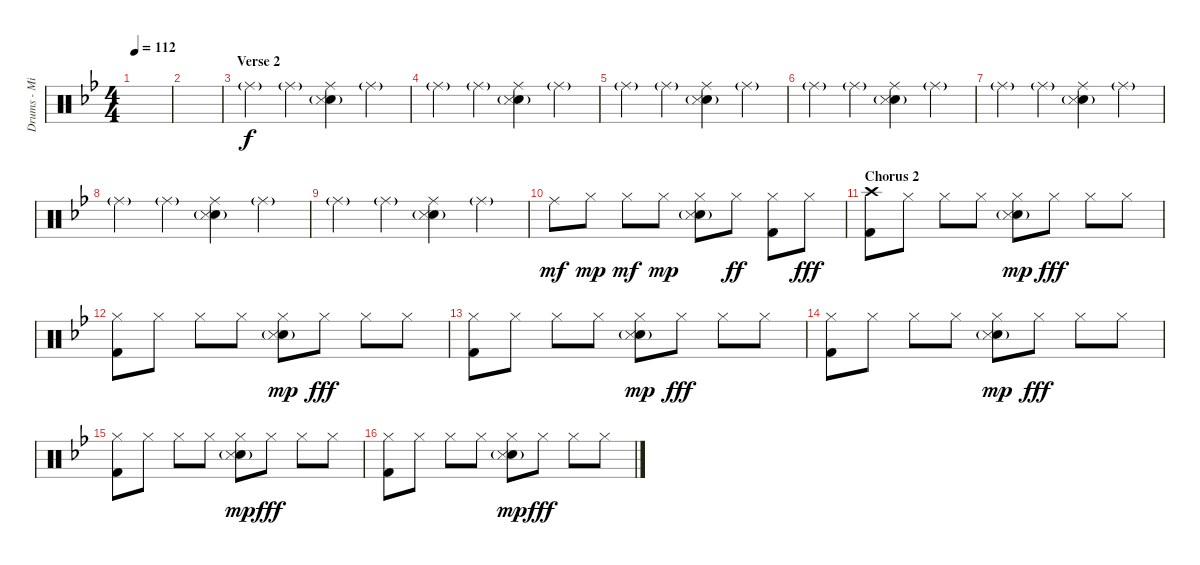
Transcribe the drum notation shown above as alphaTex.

\track ("Drums - Miko" "Drums - Mi") {instrument percussion}
\staff {score}
\articulation defaults
\ts (4 4)
\tempo 112
\clef neutral
\ks bb
|
|
\section ("" "Verse 2")
"Ride (middle)"{g}.4 "Ride (middle)"{g}.4 ("Ride (middle)" "Snare (hit) 2"{g} "Snare (side stick) 3"{g}).4 "Ride (middle)"{g}.4 |
"Ride (middle)"{g}.4 "Ride (middle)"{g}.4 ("Ride (middle)" "Snare (hit) 2"{g} "Snare (side stick) 3"{g}).4 "Ride (middle)"{g}.4 |
"Ride (middle)"{g}.4 "Ride (middle)"{g}.4 ("Ride (middle)" "Snare (hit) 2"{g} "Snare (side stick) 3"{g}).4 "Ride (middle)"{g}.4 |
"Ride (middle)"{g}.4 "Ride (middle)"{g}.4 ("Ride (middle)" "Snare (hit) 2"{g} "Snare (side stick) 3"{g}).4 "Ride (middle)"{g}.4 |
"Ride (middle)"{g}.4 "Ride (middle)"{g}.4 ("Ride (middle)" "Snare (hit) 2"{g} "Snare (side stick) 3"{g}).4 "Ride (middle)"{g}.4 |
"Ride (middle)"{g}.4 "Ride (middle)"{g}.4 ("Ride (middle)" "Snare (hit) 2"{g} "Snare (side stick) 3"{g}).4 "Ride (middle)"{g}.4 |
"Ride (middle)"{g}.4 "Ride (middle)"{g}.4 ("Ride (middle)" "Snare (hit) 2"{g} "Snare (side stick) 3"{g}).4 "Ride (middle)"{g}.4 |
"Ride (middle)".8{dy mf} "Hi-Hat (closed)".8{dy mp} "Hi-Hat (closed)".8{dy mf} "Hi-Hat (closed)".8{dy mp} ("Hi-Hat (closed)" "Snare (hit) 2"{g} "Snare (side stick) 3").8 "Hi-Hat (closed)".8{dy ff} ("Hi-Hat (closed)" "Kick (hit) 2").8 "Hi-Hat (closed)".8{dy fff} |
\section ("" "Chorus 2")
("Crash high (hit)" "Kick (hit) 2").8 "Hi-Hat (closed)".8 "Hi-Hat (closed)".8 "Hi-Hat (closed)".8 ("Hi-Hat (closed)" "Snare (hit) 2"{g} "Snare (side stick) 3").8{dy mp} "Hi-Hat (closed)".8{dy fff} "Hi-Hat (closed)".8 "Hi-Hat (closed)".8 |
("Hi-Hat (closed)" "Kick (hit) 2").8 "Hi-Hat (closed)".8 "Hi-Hat (closed)".8 "Hi-Hat (closed)".8 ("Hi-Hat (closed)" "Snare (hit) 2"{g} "Snare (side stick) 3").8{dy mp} "Hi-Hat (closed)".8{dy fff} "Hi-Hat (closed)".8 "Hi-Hat (closed)".8 |
("Hi-Hat (closed)" "Kick (hit) 2").8 "Hi-Hat (closed)".8 "Hi-Hat (closed)".8 "Hi-Hat (closed)".8 ("Hi-Hat (closed)" "Snare (hit) 2"{g} "Snare (side stick) 3").8{dy mp} "Hi-Hat (closed)".8{dy fff} "Hi-Hat (closed)".8 "Hi-Hat (closed)".8 |
("Hi-Hat (closed)" "Kick (hit) 2").8 "Hi-Hat (closed)".8 "Hi-Hat (closed)".8 "Hi-Hat (closed)".8 ("Hi-Hat (closed)" "Snare (hit) 2"{g} "Snare (side stick) 3").8{dy mp} "Hi-Hat (closed)".8{dy fff} "Hi-Hat (closed)".8 "Hi-Hat (closed)".8 |
("Hi-Hat (closed)" "Kick (hit) 2").8 "Hi-Hat (closed)".8 "Hi-Hat (closed)".8 "Hi-Hat (closed)".8 ("Hi-Hat (closed)" "Snare (hit) 2"{g} "Snare (side stick) 3").8{dy mp} "Hi-Hat (closed)".8{dy fff} "Hi-Hat (closed)".8 "Hi-Hat (closed)".8 |
("Hi-Hat (closed)" "Kick (hit) 2").8 "Hi-Hat (closed)".8 "Hi-Hat (closed)".8 "Hi-Hat (closed)".8 ("Hi-Hat (closed)" "Snare (hit) 2"{g} "Snare (side stick) 3").8{dy mp} "Hi-Hat (closed)".8{dy fff} "Hi-Hat (closed)".8 "Hi-Hat (closed)".8
